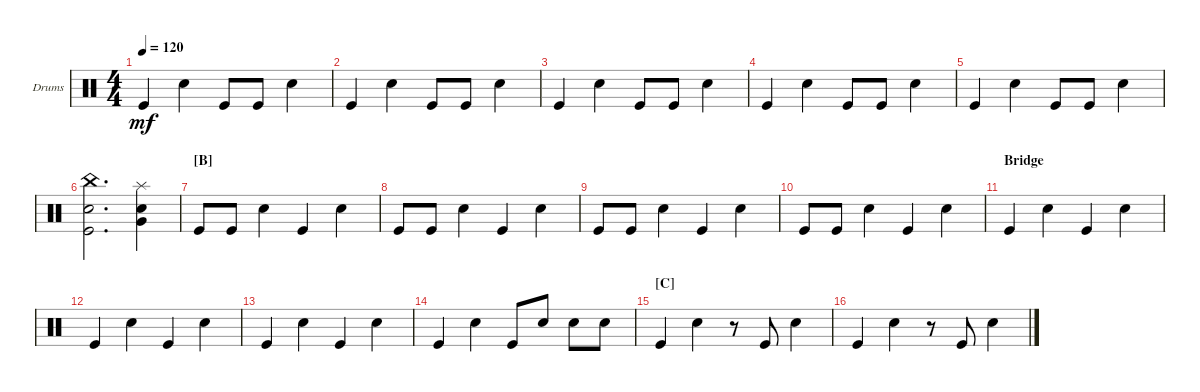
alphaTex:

\bracketExtendMode groupsimilarinstruments
\firstSystemTrackNameOrientation horizontal
\otherSystemsTrackNameOrientation horizontal
\track ("Drumkit" "Drums") {instrument percussion}
\staff {score}
\articulation defaults
\ts (4 4)
\tempo 120
\clef neutral
\ks c "Kick (hit)".4{dy mf} "Snare (hit) 2".4 "Kick (hit)".8 "Kick (hit)".8 "Snare (hit) 2".4
|
"Kick (hit)".4 "Snare (hit) 2".4 "Kick (hit)".8 "Kick (hit)".8 "Snare (hit) 2".4 |
"Kick (hit)".4 "Snare (hit) 2".4 "Kick (hit)".8 "Kick (hit)".8 "Snare (hit) 2".4 |
"Kick (hit)".4 "Snare (hit) 2".4 "Kick (hit)".8 "Kick (hit)".8 "Snare (hit) 2".4 |
"Kick (hit)".4 "Snare (hit) 2".4 "Kick (hit)".8 "Kick (hit)".8 "Snare (hit) 2".4 |
("Kick (hit)" "Snare (hit) 2" "China (hit)").2{d} ("Very Low Tom (hit)" "Snare (hit) 2" "Splash (hit)").4 |
\section ("B" "")
"Kick (hit)".8 "Kick (hit)".8 "Snare (hit) 2".4 "Kick (hit)".4 "Snare (hit) 2".4 |
"Kick (hit)".8 "Kick (hit)".8 "Snare (hit) 2".4 "Kick (hit)".4 "Snare (hit) 2".4 |
"Kick (hit)".8 "Kick (hit)".8 "Snare (hit) 2".4 "Kick (hit)".4 "Snare (hit) 2".4 |
"Kick (hit)".8 "Kick (hit)".8 "Snare (hit) 2".4 "Kick (hit)".4 "Snare (hit) 2".4 |
\section ("" "Bridge")
"Kick (hit)".4 "Snare (hit) 2".4 "Kick (hit)".4 "Snare (hit) 2".4 |
"Kick (hit)".4 "Snare (hit) 2".4 "Kick (hit)".4 "Snare (hit) 2".4 |
"Kick (hit)".4 "Snare (hit) 2".4 "Kick (hit)".4 "Snare (hit) 2".4 |
"Kick (hit)".4 "Snare (hit) 2".4 "Kick (hit)".8 "Snare (hit) 2".8 "Snare (hit) 2".8 "Snare (hit) 2".8 |
\section ("C" "")
"Kick (hit)".4 "Snare (hit) 2".4 r.8 "Kick (hit)".8 "Snare (hit) 2".4 |
"Kick (hit)".4 "Snare (hit) 2".4 r.8 "Kick (hit)".8 "Snare (hit) 2".4
